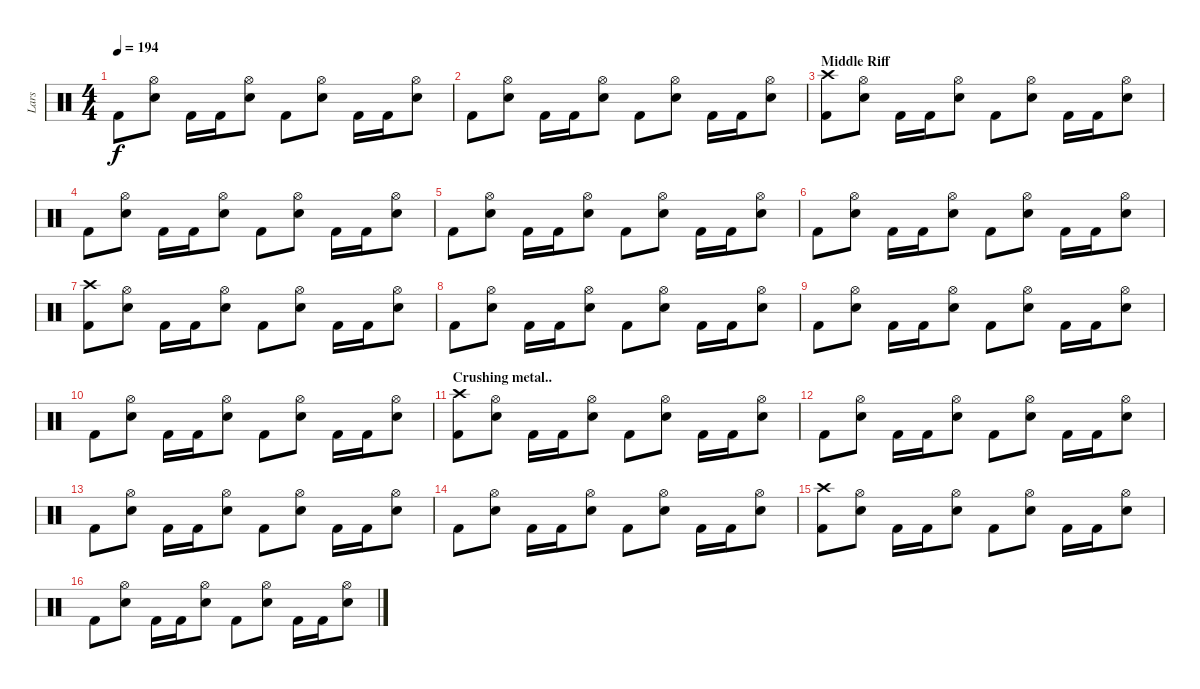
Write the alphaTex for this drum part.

\track ("Lars" "Lars") {instrument percussion}
\staff {score}
\articulation defaults
\ts (4 4)
\tempo 194
\clef neutral
\ks c "Kick (hit) 2".8{dy f}
("Electric Snare (hit)" "Hi-Hat (open)").8 "Kick (hit) 2".16 "Kick (hit) 2".16 ("Electric Snare (hit)" "Hi-Hat (open)").8 "Kick (hit) 2".8 ("Electric Snare (hit)" "Hi-Hat (open)").8 "Kick (hit) 2".16 "Kick (hit) 2".16 ("Electric Snare (hit)" "Hi-Hat (open)").8 |
"Kick (hit) 2".8 ("Electric Snare (hit)" "Hi-Hat (open)").8 "Kick (hit) 2".16 "Kick (hit) 2".16 ("Electric Snare (hit)" "Hi-Hat (open)").8 "Kick (hit) 2".8 ("Electric Snare (hit)" "Hi-Hat (open)").8 "Kick (hit) 2".16 "Kick (hit) 2".16 ("Electric Snare (hit)" "Hi-Hat (open)").8 |
\section ("" "Middle Riff")
("Kick (hit) 2" "Crash high (hit)").8 ("Electric Snare (hit)" "Hi-Hat (open)").8 "Kick (hit) 2".16 "Kick (hit) 2".16 ("Electric Snare (hit)" "Hi-Hat (open)").8 "Kick (hit) 2".8 ("Electric Snare (hit)" "Hi-Hat (open)").8 "Kick (hit) 2".16 "Kick (hit) 2".16 ("Electric Snare (hit)" "Hi-Hat (open)").8 |
"Kick (hit) 2".8 ("Electric Snare (hit)" "Hi-Hat (open)").8 "Kick (hit) 2".16 "Kick (hit) 2".16 ("Electric Snare (hit)" "Hi-Hat (open)").8 "Kick (hit) 2".8 ("Electric Snare (hit)" "Hi-Hat (open)").8 "Kick (hit) 2".16 "Kick (hit) 2".16 ("Electric Snare (hit)" "Hi-Hat (open)").8 |
"Kick (hit) 2".8 ("Electric Snare (hit)" "Hi-Hat (open)").8 "Kick (hit) 2".16 "Kick (hit) 2".16 ("Electric Snare (hit)" "Hi-Hat (open)").8 "Kick (hit) 2".8 ("Electric Snare (hit)" "Hi-Hat (open)").8 "Kick (hit) 2".16 "Kick (hit) 2".16 ("Electric Snare (hit)" "Hi-Hat (open)").8 |
"Kick (hit) 2".8 ("Electric Snare (hit)" "Hi-Hat (open)").8 "Kick (hit) 2".16 "Kick (hit) 2".16 ("Electric Snare (hit)" "Hi-Hat (open)").8 "Kick (hit) 2".8 ("Electric Snare (hit)" "Hi-Hat (open)").8 "Kick (hit) 2".16 "Kick (hit) 2".16 ("Electric Snare (hit)" "Hi-Hat (open)").8 |
("Kick (hit) 2" "Crash high (hit)").8 ("Electric Snare (hit)" "Hi-Hat (open)").8 "Kick (hit) 2".16 "Kick (hit) 2".16 ("Electric Snare (hit)" "Hi-Hat (open)").8 "Kick (hit) 2".8 ("Electric Snare (hit)" "Hi-Hat (open)").8 "Kick (hit) 2".16 "Kick (hit) 2".16 ("Electric Snare (hit)" "Hi-Hat (open)").8 |
"Kick (hit) 2".8 ("Electric Snare (hit)" "Hi-Hat (open)").8 "Kick (hit) 2".16 "Kick (hit) 2".16 ("Electric Snare (hit)" "Hi-Hat (open)").8 "Kick (hit) 2".8 ("Electric Snare (hit)" "Hi-Hat (open)").8 "Kick (hit) 2".16 "Kick (hit) 2".16 ("Electric Snare (hit)" "Hi-Hat (open)").8 |
"Kick (hit) 2".8 ("Electric Snare (hit)" "Hi-Hat (open)").8 "Kick (hit) 2".16 "Kick (hit) 2".16 ("Electric Snare (hit)" "Hi-Hat (open)").8 "Kick (hit) 2".8 ("Electric Snare (hit)" "Hi-Hat (open)").8 "Kick (hit) 2".16 "Kick (hit) 2".16 ("Electric Snare (hit)" "Hi-Hat (open)").8 |
"Kick (hit) 2".8 ("Electric Snare (hit)" "Hi-Hat (open)").8 "Kick (hit) 2".16 "Kick (hit) 2".16 ("Electric Snare (hit)" "Hi-Hat (open)").8 "Kick (hit) 2".8 ("Electric Snare (hit)" "Hi-Hat (open)").8 "Kick (hit) 2".16 "Kick (hit) 2".16 ("Electric Snare (hit)" "Hi-Hat (open)").8 |
\section ("" "Crushing metal..")
("Kick (hit) 2" "Crash high (hit)").8 ("Electric Snare (hit)" "Hi-Hat (open)").8 "Kick (hit) 2".16 "Kick (hit) 2".16 ("Electric Snare (hit)" "Hi-Hat (open)").8 "Kick (hit) 2".8 ("Electric Snare (hit)" "Hi-Hat (open)").8 "Kick (hit) 2".16 "Kick (hit) 2".16 ("Electric Snare (hit)" "Hi-Hat (open)").8 |
"Kick (hit) 2".8 ("Electric Snare (hit)" "Hi-Hat (open)").8 "Kick (hit) 2".16 "Kick (hit) 2".16 ("Electric Snare (hit)" "Hi-Hat (open)").8 "Kick (hit) 2".8 ("Electric Snare (hit)" "Hi-Hat (open)").8 "Kick (hit) 2".16 "Kick (hit) 2".16 ("Electric Snare (hit)" "Hi-Hat (open)").8 |
"Kick (hit) 2".8 ("Electric Snare (hit)" "Hi-Hat (open)").8 "Kick (hit) 2".16 "Kick (hit) 2".16 ("Electric Snare (hit)" "Hi-Hat (open)").8 "Kick (hit) 2".8 ("Electric Snare (hit)" "Hi-Hat (open)").8 "Kick (hit) 2".16 "Kick (hit) 2".16 ("Electric Snare (hit)" "Hi-Hat (open)").8 |
"Kick (hit) 2".8 ("Electric Snare (hit)" "Hi-Hat (open)").8 "Kick (hit) 2".16 "Kick (hit) 2".16 ("Electric Snare (hit)" "Hi-Hat (open)").8 "Kick (hit) 2".8 ("Electric Snare (hit)" "Hi-Hat (open)").8 "Kick (hit) 2".16 "Kick (hit) 2".16 ("Electric Snare (hit)" "Hi-Hat (open)").8 |
("Kick (hit) 2" "Crash high (hit)").8 ("Electric Snare (hit)" "Hi-Hat (open)").8 "Kick (hit) 2".16 "Kick (hit) 2".16 ("Electric Snare (hit)" "Hi-Hat (open)").8 "Kick (hit) 2".8 ("Electric Snare (hit)" "Hi-Hat (open)").8 "Kick (hit) 2".16 "Kick (hit) 2".16 ("Electric Snare (hit)" "Hi-Hat (open)").8 |
"Kick (hit) 2".8 ("Electric Snare (hit)" "Hi-Hat (open)").8 "Kick (hit) 2".16 "Kick (hit) 2".16 ("Electric Snare (hit)" "Hi-Hat (open)").8 "Kick (hit) 2".8 ("Electric Snare (hit)" "Hi-Hat (open)").8 "Kick (hit) 2".16 "Kick (hit) 2".16 ("Electric Snare (hit)" "Hi-Hat (open)").8
